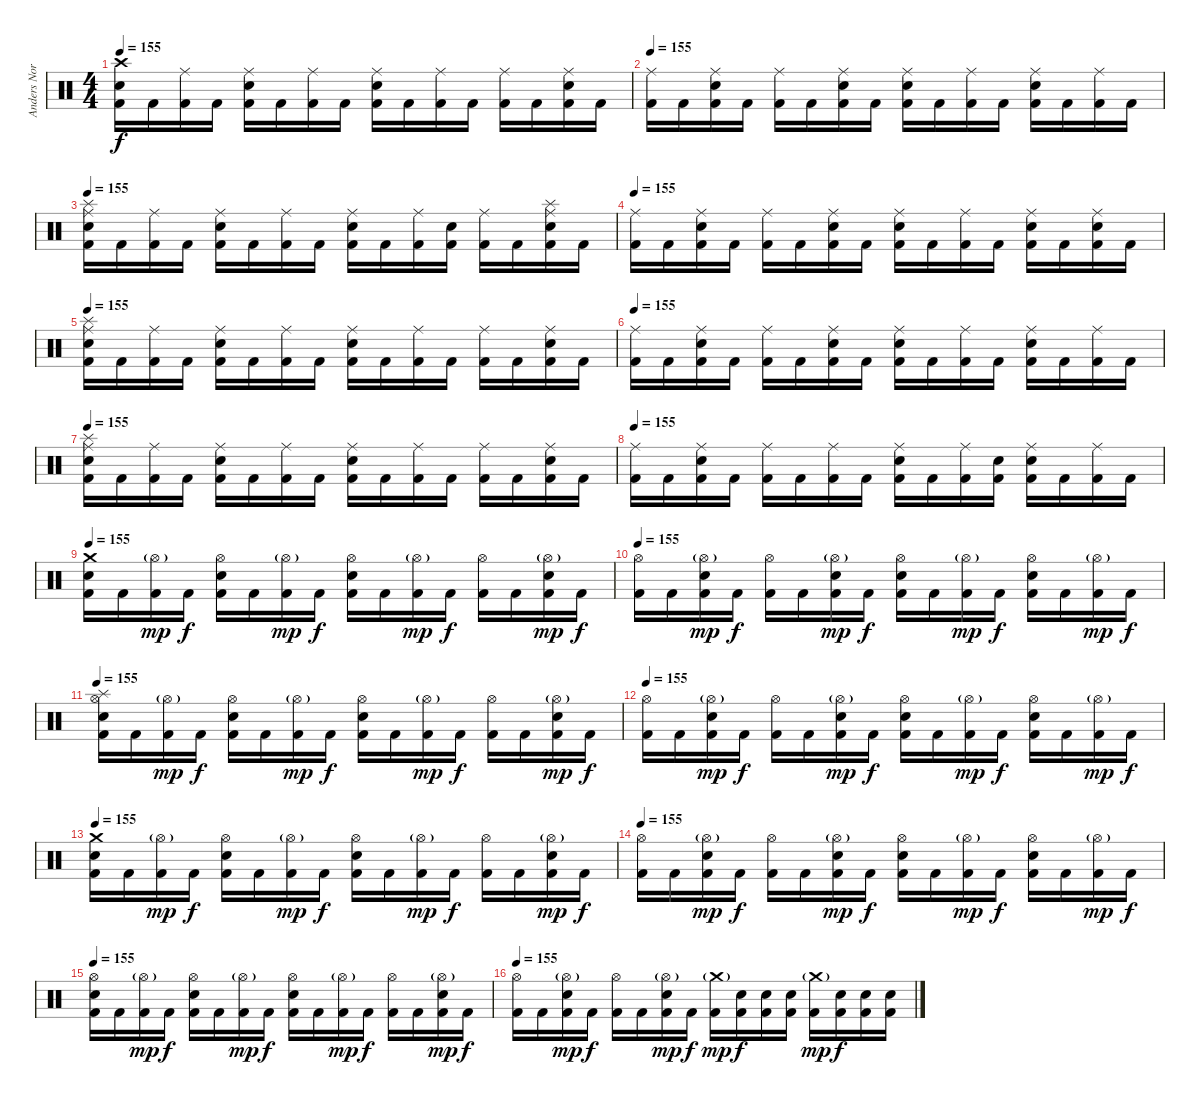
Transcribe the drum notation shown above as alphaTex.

\track ("Anders Nordin" "Anders Nor") {instrument percussion}
\staff {score}
\articulation defaults
\ts (4 4)
\tempo 155
\clef neutral
\ks c
("Kick (hit) 2" "Electric Snare (hit)" "Crash high (hit)").16{dy f volume 12} "Kick (hit) 2".16 ("Kick (hit) 2" "Ride (middle)").16 "Kick (hit) 2".16 ("Kick (hit) 2" "Electric Snare (hit)" "Ride (middle)").16 "Kick (hit) 2".16 ("Kick (hit) 2" "Ride (middle)").16 "Kick (hit) 2".16 ("Kick (hit) 2" "Electric Snare (hit)" "Ride (middle)").16 "Kick (hit) 2".16 ("Kick (hit) 2" "Ride (middle)").16 "Kick (hit) 2".16 ("Kick (hit) 2" "Ride (middle)").16 "Kick (hit) 2".16 ("Kick (hit) 2" "Electric Snare (hit)" "Ride (middle)").16 "Kick (hit) 2".16 |
\tempo 155
("Kick (hit) 2" "Ride (middle)").16 "Kick (hit) 2".16 ("Kick (hit) 2" "Electric Snare (hit)" "Ride (middle)").16 "Kick (hit) 2".16 ("Kick (hit) 2" "Ride (middle)").16 "Kick (hit) 2".16 ("Kick (hit) 2" "Electric Snare (hit)" "Ride (middle)").16 "Kick (hit) 2".16 ("Kick (hit) 2" "Electric Snare (hit)" "Ride (middle)").16 "Kick (hit) 2".16 ("Kick (hit) 2" "Ride (middle)").16 "Kick (hit) 2".16 ("Kick (hit) 2" "Electric Snare (hit)" "Ride (middle)").16 "Kick (hit) 2".16 ("Kick (hit) 2" "Ride (middle)").16 "Kick (hit) 2".16 |
\tempo 155
("Kick (hit) 2" "Electric Snare (hit)" "Ride (middle)" "Splash (hit)").16 "Kick (hit) 2".16 ("Kick (hit) 2" "Ride (middle)").16 "Kick (hit) 2".16 ("Kick (hit) 2" "Electric Snare (hit)" "Ride (middle)").16 "Kick (hit) 2".16 ("Kick (hit) 2" "Ride (middle)").16 "Kick (hit) 2".16 ("Kick (hit) 2" "Electric Snare (hit)" "Ride (middle)").16 "Kick (hit) 2".16 ("Kick (hit) 2" "Ride (middle)").16 ("Kick (hit) 2" "Electric Snare (hit)").16 ("Kick (hit) 2" "Ride (middle)").16 "Kick (hit) 2".16 ("Kick (hit) 2" "Electric Snare (hit)" "Ride (middle)" "Splash (hit)").16 "Kick (hit) 2".16 |
\tempo 155
("Kick (hit) 2" "Ride (middle)").16 "Kick (hit) 2".16 ("Kick (hit) 2" "Electric Snare (hit)" "Ride (middle)").16 "Kick (hit) 2".16 ("Kick (hit) 2" "Ride (middle)").16 "Kick (hit) 2".16 ("Kick (hit) 2" "Electric Snare (hit)" "Ride (middle)").16 "Kick (hit) 2".16 ("Kick (hit) 2" "Electric Snare (hit)" "Ride (middle)").16 "Kick (hit) 2".16 ("Kick (hit) 2" "Ride (middle)").16 "Kick (hit) 2".16 ("Kick (hit) 2" "Electric Snare (hit)" "Ride (middle)").16 "Kick (hit) 2".16 ("Kick (hit) 2" "Electric Snare (hit)" "Ride (middle)").16 "Kick (hit) 2".16 |
\tempo 155
("Kick (hit) 2" "Electric Snare (hit)" "Ride (middle)" "Splash (hit)").16 "Kick (hit) 2".16 ("Kick (hit) 2" "Ride (middle)").16 "Kick (hit) 2".16 ("Kick (hit) 2" "Electric Snare (hit)" "Ride (middle)").16 "Kick (hit) 2".16 ("Kick (hit) 2" "Ride (middle)").16 "Kick (hit) 2".16 ("Kick (hit) 2" "Electric Snare (hit)" "Ride (middle)").16 "Kick (hit) 2".16 ("Kick (hit) 2" "Ride (middle)").16 "Kick (hit) 2".16 ("Kick (hit) 2" "Ride (middle)").16 "Kick (hit) 2".16 ("Kick (hit) 2" "Electric Snare (hit)" "Ride (middle)").16 "Kick (hit) 2".16 |
\tempo 155
("Kick (hit) 2" "Ride (middle)").16 "Kick (hit) 2".16 ("Kick (hit) 2" "Electric Snare (hit)" "Ride (middle)").16 "Kick (hit) 2".16 ("Kick (hit) 2" "Ride (middle)").16 "Kick (hit) 2".16 ("Kick (hit) 2" "Electric Snare (hit)" "Ride (middle)").16 "Kick (hit) 2".16 ("Kick (hit) 2" "Electric Snare (hit)" "Ride (middle)").16 "Kick (hit) 2".16 ("Kick (hit) 2" "Ride (middle)").16 "Kick (hit) 2".16 ("Kick (hit) 2" "Electric Snare (hit)" "Ride (middle)").16 "Kick (hit) 2".16 ("Kick (hit) 2" "Ride (middle)").16 "Kick (hit) 2".16 |
\tempo 155
("Kick (hit) 2" "Electric Snare (hit)" "Ride (middle)" "Splash (hit)").16 "Kick (hit) 2".16 ("Kick (hit) 2" "Ride (middle)").16 "Kick (hit) 2".16 ("Kick (hit) 2" "Electric Snare (hit)" "Ride (middle)").16 "Kick (hit) 2".16 ("Kick (hit) 2" "Ride (middle)").16 "Kick (hit) 2".16 ("Kick (hit) 2" "Electric Snare (hit)" "Ride (middle)").16 "Kick (hit) 2".16 ("Kick (hit) 2" "Ride (middle)").16 "Kick (hit) 2".16 ("Kick (hit) 2" "Ride (middle)").16 "Kick (hit) 2".16 ("Kick (hit) 2" "Electric Snare (hit)" "Ride (middle)").16 "Kick (hit) 2".16 |
\tempo 155
("Kick (hit) 2" "Ride (middle)").16 "Kick (hit) 2".16 ("Kick (hit) 2" "Electric Snare (hit)" "Ride (middle)").16 "Kick (hit) 2".16 ("Kick (hit) 2" "Ride (middle)").16 "Kick (hit) 2".16 ("Kick (hit) 2" "Ride (middle)").16 "Kick (hit) 2".16 ("Kick (hit) 2" "Electric Snare (hit)" "Ride (middle)").16 "Kick (hit) 2".16 ("Kick (hit) 2" "Ride (middle)").16 ("Kick (hit) 2" "Electric Snare (hit)").16 ("Kick (hit) 2" "Electric Snare (hit)" "Ride (middle)").16 "Kick (hit) 2".16 ("Kick (hit) 2" "Ride (middle)").16 "Kick (hit) 2".16 |
\tempo 155
("Kick (hit) 2" "Electric Snare (hit)" "Crash medium (hit)").16 "Kick (hit) 2".16 ("Kick (hit) 2" "Hi-Hat (open)"{g}).16{dy mp} "Kick (hit) 2".16{dy f} ("Kick (hit) 2" "Electric Snare (hit)" "Hi-Hat (open)").16 "Kick (hit) 2".16 ("Kick (hit) 2" "Hi-Hat (open)"{g}).16{dy mp} "Kick (hit) 2".16{dy f} ("Kick (hit) 2" "Electric Snare (hit)" "Hi-Hat (open)").16 "Kick (hit) 2".16 ("Kick (hit) 2" "Hi-Hat (open)"{g}).16{dy mp} "Kick (hit) 2".16{dy f} ("Kick (hit) 2" "Hi-Hat (open)").16 "Kick (hit) 2".16 ("Kick (hit) 2" "Electric Snare (hit)" "Hi-Hat (open)"{g}).16{dy mp} "Kick (hit) 2".16{dy f} |
\tempo 155
("Kick (hit) 2" "Hi-Hat (open)").16 "Kick (hit) 2".16 ("Kick (hit) 2" "Electric Snare (hit)" "Hi-Hat (open)"{g}).16{dy mp} "Kick (hit) 2".16{dy f} ("Kick (hit) 2" "Hi-Hat (open)").16 "Kick (hit) 2".16 ("Kick (hit) 2" "Electric Snare (hit)" "Hi-Hat (open)"{g}).16{dy mp} "Kick (hit) 2".16{dy f} ("Kick (hit) 2" "Electric Snare (hit)" "Hi-Hat (open)").16 "Kick (hit) 2".16 ("Kick (hit) 2" "Hi-Hat (open)"{g}).16{dy mp} "Kick (hit) 2".16{dy f} ("Kick (hit) 2" "Electric Snare (hit)" "Hi-Hat (open)").16 "Kick (hit) 2".16 ("Kick (hit) 2" "Hi-Hat (open)"{g}).16{dy mp} "Kick (hit) 2".16{dy f} |
\tempo 155
("Kick (hit) 2" "Electric Snare (hit)" "Hi-Hat (open)" "Splash (hit)").16 "Kick (hit) 2".16 ("Kick (hit) 2" "Hi-Hat (open)"{g}).16{dy mp} "Kick (hit) 2".16{dy f} ("Kick (hit) 2" "Electric Snare (hit)" "Hi-Hat (open)").16 "Kick (hit) 2".16 ("Kick (hit) 2" "Hi-Hat (open)"{g}).16{dy mp} "Kick (hit) 2".16{dy f} ("Kick (hit) 2" "Electric Snare (hit)" "Hi-Hat (open)").16 "Kick (hit) 2".16 ("Kick (hit) 2" "Hi-Hat (open)"{g}).16{dy mp} "Kick (hit) 2".16{dy f} ("Kick (hit) 2" "Hi-Hat (open)").16 "Kick (hit) 2".16 ("Kick (hit) 2" "Electric Snare (hit)" "Hi-Hat (open)"{g}).16{dy mp} "Kick (hit) 2".16{dy f} |
\tempo 155
("Kick (hit) 2" "Hi-Hat (open)").16 "Kick (hit) 2".16 ("Kick (hit) 2" "Electric Snare (hit)" "Hi-Hat (open)"{g}).16{dy mp} "Kick (hit) 2".16{dy f} ("Kick (hit) 2" "Hi-Hat (open)").16 "Kick (hit) 2".16 ("Kick (hit) 2" "Electric Snare (hit)" "Hi-Hat (open)"{g}).16{dy mp} "Kick (hit) 2".16{dy f} ("Kick (hit) 2" "Electric Snare (hit)" "Hi-Hat (open)").16 "Kick (hit) 2".16 ("Kick (hit) 2" "Hi-Hat (open)"{g}).16{dy mp} "Kick (hit) 2".16{dy f} ("Kick (hit) 2" "Electric Snare (hit)" "Hi-Hat (open)").16 "Kick (hit) 2".16 ("Kick (hit) 2" "Hi-Hat (open)"{g}).16{dy mp} "Kick (hit) 2".16{dy f} |
\tempo 155
("Kick (hit) 2" "Electric Snare (hit)" "Crash medium (hit)").16 "Kick (hit) 2".16 ("Kick (hit) 2" "Hi-Hat (open)"{g}).16{dy mp} "Kick (hit) 2".16{dy f} ("Kick (hit) 2" "Electric Snare (hit)" "Hi-Hat (open)").16 "Kick (hit) 2".16 ("Kick (hit) 2" "Hi-Hat (open)"{g}).16{dy mp} "Kick (hit) 2".16{dy f} ("Kick (hit) 2" "Electric Snare (hit)" "Hi-Hat (open)").16 "Kick (hit) 2".16 ("Kick (hit) 2" "Hi-Hat (open)"{g}).16{dy mp} "Kick (hit) 2".16{dy f} ("Kick (hit) 2" "Hi-Hat (open)").16 "Kick (hit) 2".16 ("Kick (hit) 2" "Electric Snare (hit)" "Hi-Hat (open)"{g}).16{dy mp} "Kick (hit) 2".16{dy f} |
\tempo 155
("Kick (hit) 2" "Hi-Hat (open)").16 "Kick (hit) 2".16 ("Kick (hit) 2" "Electric Snare (hit)" "Hi-Hat (open)"{g}).16{dy mp} "Kick (hit) 2".16{dy f} ("Kick (hit) 2" "Hi-Hat (open)").16 "Kick (hit) 2".16 ("Kick (hit) 2" "Electric Snare (hit)" "Hi-Hat (open)"{g}).16{dy mp} "Kick (hit) 2".16{dy f} ("Kick (hit) 2" "Electric Snare (hit)" "Hi-Hat (open)").16 "Kick (hit) 2".16 ("Kick (hit) 2" "Hi-Hat (open)"{g}).16{dy mp} "Kick (hit) 2".16{dy f} ("Kick (hit) 2" "Electric Snare (hit)" "Hi-Hat (open)").16 "Kick (hit) 2".16 ("Kick (hit) 2" "Hi-Hat (open)"{g}).16{dy mp} "Kick (hit) 2".16{dy f} |
\tempo 155
("Kick (hit) 2" "Electric Snare (hit)" "Hi-Hat (open)").16 "Kick (hit) 2".16 ("Kick (hit) 2" "Hi-Hat (open)"{g}).16{dy mp} "Kick (hit) 2".16{dy f} ("Kick (hit) 2" "Electric Snare (hit)" "Hi-Hat (open)").16 "Kick (hit) 2".16 ("Kick (hit) 2" "Hi-Hat (open)"{g}).16{dy mp} "Kick (hit) 2".16{dy f} ("Kick (hit) 2" "Electric Snare (hit)" "Hi-Hat (open)").16 "Kick (hit) 2".16 ("Kick (hit) 2" "Hi-Hat (open)"{g}).16{dy mp} "Kick (hit) 2".16{dy f} ("Kick (hit) 2" "Hi-Hat (open)").16 "Kick (hit) 2".16 ("Kick (hit) 2" "Electric Snare (hit)" "Hi-Hat (open)"{g}).16{dy mp} "Kick (hit) 2".16{dy f} |
\tempo 155
("Kick (hit) 2" "Hi-Hat (open)").16 "Kick (hit) 2".16 ("Kick (hit) 2" "Electric Snare (hit)" "Hi-Hat (open)"{g}).16{dy mp} "Kick (hit) 2".16{dy f} ("Kick (hit) 2" "Hi-Hat (open)").16 "Kick (hit) 2".16 ("Kick (hit) 2" "Electric Snare (hit)" "Hi-Hat (open)"{g}).16{dy mp} "Kick (hit) 2".16{dy f} ("Kick (hit) 2" "Crash medium (hit)"{g}).16{dy mp} ("Kick (hit) 2" "Snare (hit)"{x}).16{dy f} ("Kick (hit) 2" "Snare (hit)"{x}).16 ("Kick (hit) 2" "Snare (hit)"{x}).16 ("Kick (hit) 2" "Crash medium (hit)"{g}).16{dy mp} ("Kick (hit) 2" "Snare (hit)"{x}).16{dy f} ("Kick (hit) 2" "Snare (hit)"{x}).16 ("Kick (hit) 2" "Snare (hit)"{x}).16
